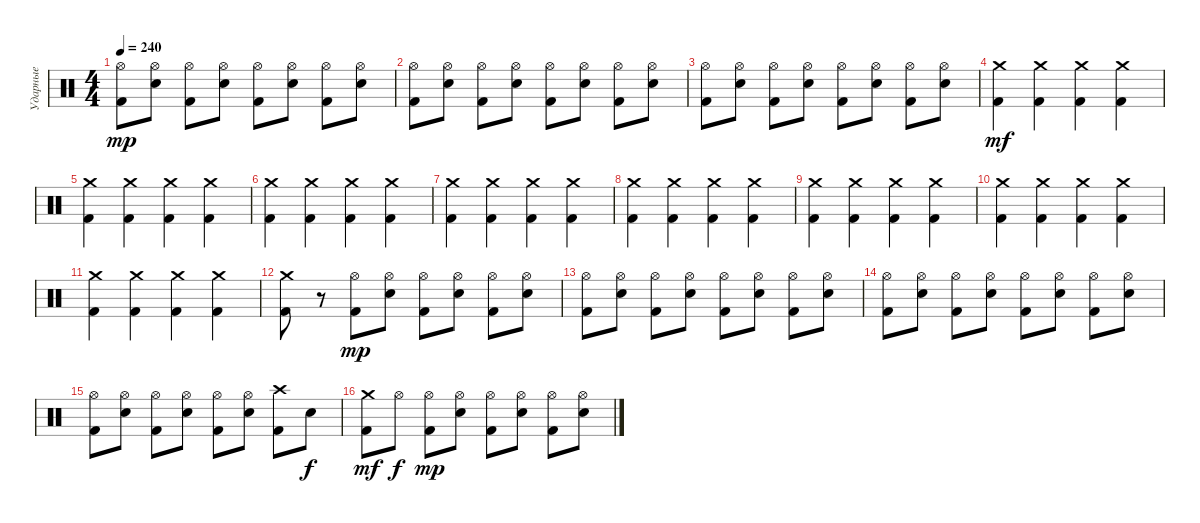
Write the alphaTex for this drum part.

\track ("Ударные" "Ударные") {instrument percussion}
\staff {score}
\articulation defaults
\ts (4 4)
\tempo 240
\clef neutral
\ks c
("Hi-Hat (open)" "Kick (hit) 2").8{dy mp} ("Hi-Hat (open)" "Snare (hit) 2").8 ("Hi-Hat (open)" "Kick (hit) 2").8 ("Hi-Hat (open)" "Snare (hit) 2").8 ("Hi-Hat (open)" "Kick (hit) 2").8 ("Hi-Hat (open)" "Snare (hit) 2").8 ("Hi-Hat (open)" "Kick (hit) 2").8 ("Hi-Hat (open)" "Snare (hit) 2").8 |
("Hi-Hat (open)" "Kick (hit) 2").8 ("Hi-Hat (open)" "Snare (hit) 2").8 ("Hi-Hat (open)" "Kick (hit) 2").8 ("Hi-Hat (open)" "Snare (hit) 2").8 ("Hi-Hat (open)" "Kick (hit) 2").8 ("Hi-Hat (open)" "Snare (hit) 2").8 ("Hi-Hat (open)" "Kick (hit) 2").8 ("Hi-Hat (open)" "Snare (hit) 2").8 |
("Hi-Hat (open)" "Kick (hit) 2").8 ("Hi-Hat (open)" "Snare (hit) 2").8 ("Hi-Hat (open)" "Kick (hit) 2").8 ("Hi-Hat (open)" "Snare (hit) 2").8 ("Hi-Hat (open)" "Kick (hit) 2").8 ("Hi-Hat (open)" "Snare (hit) 2").8 ("Hi-Hat (open)" "Kick (hit) 2").8 ("Hi-Hat (open)" "Snare (hit) 2").8 |
("Crash medium (hit)" "Kick (hit) 2").4{dy mf} ("Crash medium (hit)" "Kick (hit) 2").4 ("Crash medium (hit)" "Kick (hit) 2").4 ("Crash medium (hit)" "Kick (hit) 2").4 |
("Crash medium (hit)" "Kick (hit) 2").4 ("Crash medium (hit)" "Kick (hit) 2").4 ("Crash medium (hit)" "Kick (hit) 2").4 ("Crash medium (hit)" "Kick (hit) 2").4 |
("Crash medium (hit)" "Kick (hit) 2").4 ("Crash medium (hit)" "Kick (hit) 2").4 ("Crash medium (hit)" "Kick (hit) 2").4 ("Crash medium (hit)" "Kick (hit) 2").4 |
("Crash medium (hit)" "Kick (hit) 2").4 ("Crash medium (hit)" "Kick (hit) 2").4 ("Crash medium (hit)" "Kick (hit) 2").4 ("Crash medium (hit)" "Kick (hit) 2").4 |
("Crash medium (hit)" "Kick (hit) 2").4 ("Crash medium (hit)" "Kick (hit) 2").4 ("Crash medium (hit)" "Kick (hit) 2").4 ("Crash medium (hit)" "Kick (hit) 2").4 |
("Crash medium (hit)" "Kick (hit) 2").4 ("Crash medium (hit)" "Kick (hit) 2").4 ("Crash medium (hit)" "Kick (hit) 2").4 ("Crash medium (hit)" "Kick (hit) 2").4 |
("Crash medium (hit)" "Kick (hit) 2").4 ("Crash medium (hit)" "Kick (hit) 2").4 ("Crash medium (hit)" "Kick (hit) 2").4 ("Crash medium (hit)" "Kick (hit) 2").4 |
("Crash medium (hit)" "Kick (hit) 2").4 ("Crash medium (hit)" "Kick (hit) 2").4 ("Crash medium (hit)" "Kick (hit) 2").4 ("Crash medium (hit)" "Kick (hit) 2").4 |
("Crash medium (hit)" "Kick (hit) 2").8 r.8 ("Hi-Hat (open)" "Kick (hit) 2").8{dy mp} ("Hi-Hat (open)" "Snare (hit) 2").8 ("Hi-Hat (open)" "Kick (hit) 2").8 ("Hi-Hat (open)" "Snare (hit) 2").8 ("Hi-Hat (open)" "Kick (hit) 2").8 ("Hi-Hat (open)" "Snare (hit) 2").8 |
("Hi-Hat (open)" "Kick (hit) 2").8 ("Hi-Hat (open)" "Snare (hit) 2").8 ("Hi-Hat (open)" "Kick (hit) 2").8 ("Hi-Hat (open)" "Snare (hit) 2").8 ("Hi-Hat (open)" "Kick (hit) 2").8 ("Hi-Hat (open)" "Snare (hit) 2").8 ("Hi-Hat (open)" "Kick (hit) 2").8 ("Hi-Hat (open)" "Snare (hit) 2").8 |
("Hi-Hat (open)" "Kick (hit) 2").8 ("Hi-Hat (open)" "Snare (hit) 2").8 ("Hi-Hat (open)" "Kick (hit) 2").8 ("Hi-Hat (open)" "Snare (hit) 2").8 ("Hi-Hat (open)" "Kick (hit) 2").8 ("Hi-Hat (open)" "Snare (hit) 2").8 ("Hi-Hat (open)" "Kick (hit) 2").8 ("Hi-Hat (open)" "Snare (hit) 2").8 |
("Hi-Hat (open)" "Kick (hit) 2").8 ("Hi-Hat (open)" "Snare (hit) 2").8 ("Hi-Hat (open)" "Kick (hit) 2").8 ("Hi-Hat (open)" "Snare (hit) 2").8 ("Hi-Hat (open)" "Kick (hit) 2").8 ("Hi-Hat (open)" "Snare (hit) 2").8 ("Crash high (hit)" "Kick (hit) 2").8 "Snare (hit) 2".8{dy f} |
("Crash medium (hit)" "Kick (hit) 2").8{dy mf} "Hi-Hat (open)".8{dy f} ("Hi-Hat (open)" "Kick (hit) 2").8{dy mp} ("Hi-Hat (open)" "Snare (hit) 2").8 ("Hi-Hat (open)" "Kick (hit) 2").8 ("Hi-Hat (open)" "Snare (hit) 2").8 ("Hi-Hat (open)" "Kick (hit) 2").8 ("Hi-Hat (open)" "Snare (hit) 2").8
